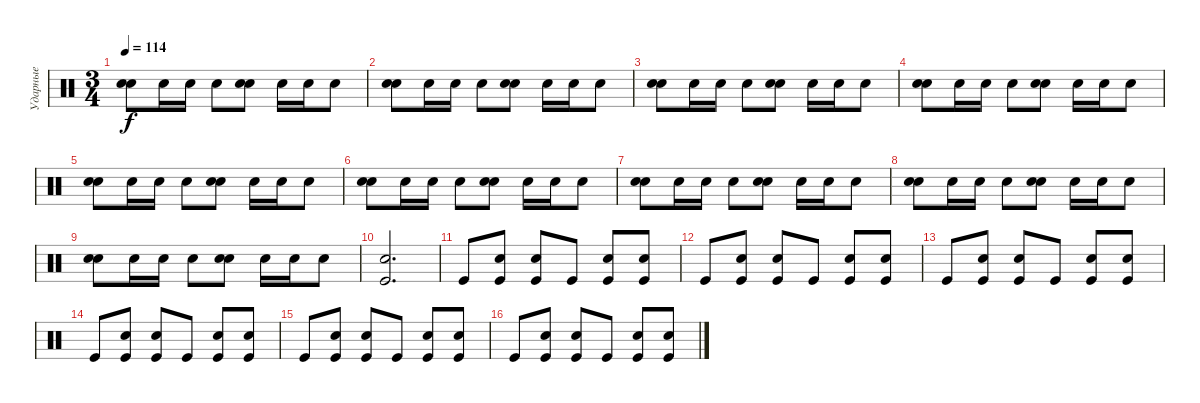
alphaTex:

\track ("Ударные" "Ударные") {instrument percussion}
\staff {score}
\articulation defaults
\ts (3 4)
\tempo 114
\clef neutral
\ks c
("Snare (hit) 2" "Electric Snare (hit)").8{dy f} "Electric Snare (hit)".16 "Electric Snare (hit)".16 "Electric Snare (hit)".8 ("Snare (hit) 2" "Electric Snare (hit)").8 "Electric Snare (hit)".16 "Electric Snare (hit)".16 "Electric Snare (hit)".8 |
("Snare (hit) 2" "Electric Snare (hit)").8 "Electric Snare (hit)".16 "Electric Snare (hit)".16 "Electric Snare (hit)".8 ("Snare (hit) 2" "Electric Snare (hit)").8 "Electric Snare (hit)".16 "Electric Snare (hit)".16 "Electric Snare (hit)".8 |
("Snare (hit) 2" "Electric Snare (hit)").8 "Electric Snare (hit)".16{volume 15} "Electric Snare (hit)".16 "Electric Snare (hit)".8 ("Snare (hit) 2" "Electric Snare (hit)").8 "Electric Snare (hit)".16 "Electric Snare (hit)".16 "Electric Snare (hit)".8 |
("Snare (hit) 2" "Electric Snare (hit)").8 "Electric Snare (hit)".16 "Electric Snare (hit)".16 "Electric Snare (hit)".8 ("Snare (hit) 2" "Electric Snare (hit)").8 "Electric Snare (hit)".16 "Electric Snare (hit)".16 "Electric Snare (hit)".8 |
("Snare (hit) 2" "Electric Snare (hit)").8 "Electric Snare (hit)".16 "Electric Snare (hit)".16 "Electric Snare (hit)".8 ("Snare (hit) 2" "Electric Snare (hit)").8 "Electric Snare (hit)".16 "Electric Snare (hit)".16 "Electric Snare (hit)".8 |
("Snare (hit) 2" "Electric Snare (hit)").8 "Electric Snare (hit)".16 "Electric Snare (hit)".16 "Electric Snare (hit)".8 ("Snare (hit) 2" "Electric Snare (hit)").8 "Electric Snare (hit)".16 "Electric Snare (hit)".16 "Electric Snare (hit)".8 |
("Snare (hit) 2" "Electric Snare (hit)").8 "Electric Snare (hit)".16 "Electric Snare (hit)".16 "Electric Snare (hit)".8 ("Snare (hit) 2" "Electric Snare (hit)").8 "Electric Snare (hit)".16 "Electric Snare (hit)".16 "Electric Snare (hit)".8 |
("Snare (hit) 2" "Electric Snare (hit)").8 "Electric Snare (hit)".16 "Electric Snare (hit)".16 "Electric Snare (hit)".8 ("Snare (hit) 2" "Electric Snare (hit)").8 "Electric Snare (hit)".16 "Electric Snare (hit)".16 "Electric Snare (hit)".8 |
("Snare (hit) 2" "Electric Snare (hit)").8 "Electric Snare (hit)".16 "Electric Snare (hit)".16 "Electric Snare (hit)".8 ("Snare (hit) 2" "Electric Snare (hit)").8 "Electric Snare (hit)".16 "Electric Snare (hit)".16 "Electric Snare (hit)".8 |
("Kick (hit)" "Snare (hit) 2").2{d volume 15} |
"Kick (hit)".8{volume 10} ("Snare (hit) 2" "Kick (hit)").8 ("Snare (hit) 2" "Kick (hit)").8 "Kick (hit)".8 ("Snare (hit) 2" "Kick (hit)").8 ("Snare (hit) 2" "Kick (hit)").8 |
"Kick (hit)".8 ("Snare (hit) 2" "Kick (hit)").8 ("Snare (hit) 2" "Kick (hit)").8 "Kick (hit)".8 ("Snare (hit) 2" "Kick (hit)").8 ("Snare (hit) 2" "Kick (hit)").8 |
"Kick (hit)".8 ("Snare (hit) 2" "Kick (hit)").8 ("Snare (hit) 2" "Kick (hit)").8 "Kick (hit)".8 ("Snare (hit) 2" "Kick (hit)").8 ("Snare (hit) 2" "Kick (hit)").8 |
"Kick (hit)".8 ("Snare (hit) 2" "Kick (hit)").8 ("Snare (hit) 2" "Kick (hit)").8 "Kick (hit)".8 ("Snare (hit) 2" "Kick (hit)").8 ("Snare (hit) 2" "Kick (hit)").8 |
"Kick (hit)".8 ("Snare (hit) 2" "Kick (hit)").8 ("Snare (hit) 2" "Kick (hit)").8 "Kick (hit)".8 ("Snare (hit) 2" "Kick (hit)").8 ("Snare (hit) 2" "Kick (hit)").8 |
"Kick (hit)".8 ("Snare (hit) 2" "Kick (hit)").8 ("Snare (hit) 2" "Kick (hit)").8 "Kick (hit)".8 ("Snare (hit) 2" "Kick (hit)").8 ("Snare (hit) 2" "Kick (hit)").8
